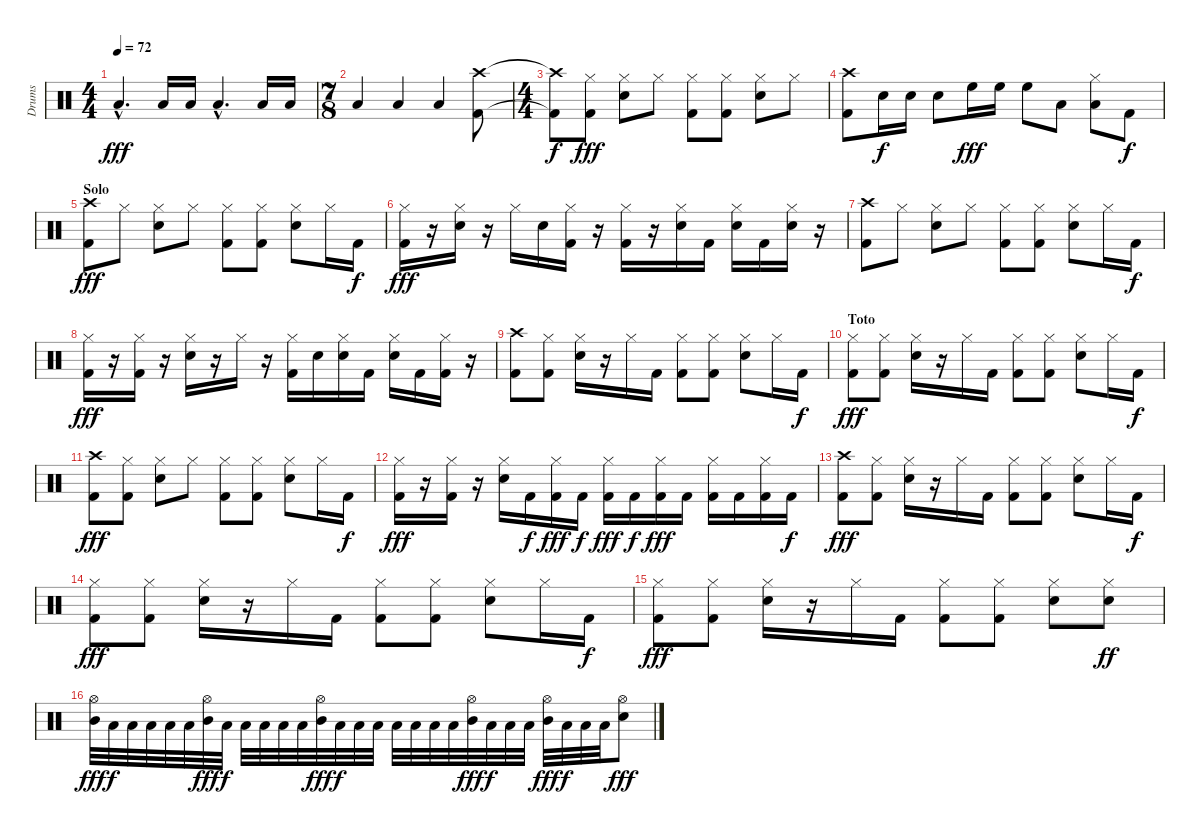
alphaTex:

\track ("Drums" "Drums") {instrument percussion}
\staff {score}
\articulation defaults
\ts (4 4)
\tempo 72
\clef neutral
\ks c "Low Floor Tom (hit)"{hac}.4{d dy fff} "Low Floor Tom (hit)".16 "Low Floor Tom (hit)".16 "Low Floor Tom (hit)"{hac}.4{d} "Low Floor Tom (hit)".16 "Low Floor Tom (hit)".16
|
\ts (7 8)
"Low Floor Tom (hit)".4 "Low Floor Tom (hit)".4 "Low Floor Tom (hit)".4 ("Crash high (hit)" "Kick (hit) 2").8 |
\ts (4 4)
("Crash high (hit)"{t} "Kick (hit) 2"{t}).8{dy f} ("Hi-Hat (closed)" "Kick (hit) 2").8{dy fff} ("Hi-Hat (closed)" "Snare (hit) 2").8 "Hi-Hat (closed)".8 ("Hi-Hat (closed)" "Kick (hit) 2").8 ("Hi-Hat (closed)" "Kick (hit) 2").8 ("Hi-Hat (closed)" "Snare (hit) 2").8 "Hi-Hat (closed)".8 |
("Crash high (hit)" "Kick (hit) 2").8 "Snare (hit) 2".16{dy f} "Snare (hit) 2".16 "Snare (hit) 2".8 "High Floor Tom (hit)".16{dy fff} "High Floor Tom (hit)".16 "High Floor Tom (hit)".8 "Low Floor Tom (hit)".8 ("Hi-Hat (closed)" "Low Floor Tom (hit)").8 "Kick (hit) 2".8{dy f} |
\section ("" "Solo")
("Crash high (hit)" "Kick (hit) 2").8{dy fff} "Hi-Hat (closed)".8 ("Hi-Hat (closed)" "Snare (hit) 2").8 "Hi-Hat (closed)".8 ("Hi-Hat (closed)" "Kick (hit) 2").8 ("Hi-Hat (closed)" "Kick (hit) 2").8 ("Hi-Hat (closed)" "Snare (hit) 2").8 "Hi-Hat (closed)".16 "Kick (hit) 2".16{dy f} |
("Hi-Hat (closed)" "Kick (hit) 2").16{dy fff} r.16 ("Hi-Hat (closed)" "Snare (hit) 2").16 r.16 "Hi-Hat (closed)".16 "Snare (hit) 2".16 ("Hi-Hat (closed)" "Kick (hit) 2").16 r.16 ("Hi-Hat (closed)" "Kick (hit) 2").16 r.16 ("Hi-Hat (closed)" "Snare (hit) 2").16 "Kick (hit) 2".16 ("Hi-Hat (closed)" "Snare (hit) 2").16 "Kick (hit) 2".16 ("Hi-Hat (closed)" "Snare (hit) 2").16 r.16 |
("Crash high (hit)" "Kick (hit) 2").8 "Hi-Hat (closed)".8 ("Hi-Hat (closed)" "Snare (hit) 2").8 "Hi-Hat (closed)".8 ("Hi-Hat (closed)" "Kick (hit) 2").8 ("Hi-Hat (closed)" "Kick (hit) 2").8 ("Hi-Hat (closed)" "Snare (hit) 2").8 "Hi-Hat (closed)".16 "Kick (hit) 2".16{dy f} |
("Hi-Hat (closed)" "Kick (hit) 2").16{dy fff} r.16 ("Hi-Hat (closed)" "Kick (hit) 2").16 r.16 ("Hi-Hat (closed)" "Snare (hit) 2").16 r.16 "Hi-Hat (closed)".16 r.16 ("Hi-Hat (closed)" "Kick (hit) 2").16 "Snare (hit) 2".16 ("Hi-Hat (closed)" "Snare (hit) 2").16 "Kick (hit) 2".16 ("Hi-Hat (closed)" "Snare (hit) 2").16 "Kick (hit) 2".16 ("Hi-Hat (closed)" "Kick (hit) 2").16 r.16 |
("Crash high (hit)" "Kick (hit) 2").8 ("Hi-Hat (closed)" "Kick (hit) 2").8 ("Hi-Hat (closed)" "Snare (hit) 2").16 r.16 "Hi-Hat (closed)".16 "Kick (hit) 2".16 ("Hi-Hat (closed)" "Kick (hit) 2").8 ("Hi-Hat (closed)" "Kick (hit) 2").8 ("Hi-Hat (closed)" "Snare (hit) 2").8 "Hi-Hat (closed)".16 "Kick (hit) 2".16{dy f} |
\section ("" "Toto")
("Hi-Hat (closed)" "Kick (hit) 2").8{dy fff} ("Hi-Hat (closed)" "Kick (hit) 2").8 ("Hi-Hat (closed)" "Snare (hit) 2").16 r.16 "Hi-Hat (closed)".16 "Kick (hit) 2".16 ("Hi-Hat (closed)" "Kick (hit) 2").8 ("Hi-Hat (closed)" "Kick (hit) 2").8 ("Hi-Hat (closed)" "Snare (hit) 2").8 "Hi-Hat (closed)".16 "Kick (hit) 2".16{dy f} |
("Crash high (hit)" "Kick (hit) 2").8{dy fff} ("Hi-Hat (closed)" "Kick (hit) 2").8 ("Hi-Hat (closed)" "Snare (hit) 2").8 "Hi-Hat (closed)".8 ("Hi-Hat (closed)" "Kick (hit) 2").8 ("Hi-Hat (closed)" "Kick (hit) 2").8 ("Hi-Hat (closed)" "Snare (hit) 2").8 "Hi-Hat (closed)".16 "Kick (hit) 2".16{dy f} |
("Hi-Hat (closed)" "Kick (hit) 2").16{dy fff} r.16 ("Hi-Hat (closed)" "Kick (hit) 2").16 r.16 ("Hi-Hat (closed)" "Snare (hit) 2").16 "Kick (hit) 2".16{dy f} ("Hi-Hat (closed)" "Kick (hit) 2").16{dy fff} "Kick (hit) 2".16{dy f} ("Hi-Hat (closed)" "Kick (hit) 2").16{dy fff} "Kick (hit) 2".16{dy f} ("Hi-Hat (closed)" "Kick (hit) 2").16{dy fff} "Kick (hit) 2".16 ("Hi-Hat (closed)" "Kick (hit) 2").16 "Kick (hit) 2".16 ("Hi-Hat (closed)" "Kick (hit) 2").16 "Kick (hit) 2".16{dy f} |
("Crash high (hit)" "Kick (hit) 2").8{dy fff} ("Hi-Hat (closed)" "Kick (hit) 2").8 ("Hi-Hat (closed)" "Snare (hit) 2").16 r.16 "Hi-Hat (closed)".16 "Kick (hit) 2".16 ("Hi-Hat (closed)" "Kick (hit) 2").8 ("Hi-Hat (closed)" "Kick (hit) 2").8 ("Hi-Hat (closed)" "Snare (hit) 2").8 "Hi-Hat (closed)".16 "Kick (hit) 2".16{dy f} |
("Hi-Hat (closed)" "Kick (hit) 2").8{dy fff} ("Hi-Hat (closed)" "Kick (hit) 2").8 ("Hi-Hat (closed)" "Snare (hit) 2").16 r.16 "Hi-Hat (closed)".16 "Kick (hit) 2".16 ("Hi-Hat (closed)" "Kick (hit) 2").8 ("Hi-Hat (closed)" "Kick (hit) 2").8 ("Hi-Hat (closed)" "Snare (hit) 2").8 "Hi-Hat (closed)".16 "Kick (hit) 2".16{dy f} |
("Hi-Hat (closed)" "Kick (hit) 2").8{dy fff} ("Hi-Hat (closed)" "Kick (hit) 2").8 ("Hi-Hat (closed)" "Snare (hit) 2").16 r.16 "Hi-Hat (closed)".16 "Kick (hit) 2".16 ("Hi-Hat (closed)" "Kick (hit) 2").8 ("Hi-Hat (closed)" "Kick (hit) 2").8 ("Hi-Hat (closed)" "Snare (hit) 2").8 ("Hi-Hat (closed)" "Snare (hit) 2").8{dy ff} |
("Hi-Hat (open)" "Mid Tom (hit)").32{dy fff} "Low Tom (hit)".32{dy f} "Low Tom (hit)".32 "Low Tom (hit)".32 "Low Tom (hit)".32 "Low Tom (hit)".32 ("Hi-Hat (open)" "Mid Tom (hit)").32{dy fff} "Low Tom (hit)".32{dy f} "Low Tom (hit)".32 "Low Tom (hit)".32 "Low Tom (hit)".32 "Low Tom (hit)".32 ("Hi-Hat (open)" "Mid Tom (hit)").32{dy fff} "Low Tom (hit)".32{dy f} "Low Tom (hit)".32 "Low Tom (hit)".32 "Low Tom (hit)".32 "Low Tom (hit)".32 "Low Tom (hit)".32 "Low Tom (hit)".32 ("Hi-Hat (open)" "Mid Tom (hit)").32{dy fff} "Low Tom (hit)".32{dy f} "Low Tom (hit)".32 "Low Tom (hit)".32 ("Hi-Hat (open)" "Mid Tom (hit)").32{dy fff} "Low Tom (hit)".32{dy f} "Low Tom (hit)".32 "Low Tom (hit)".32 ("Hi-Hat (open)" "Snare (hit) 2").8{dy fff}
